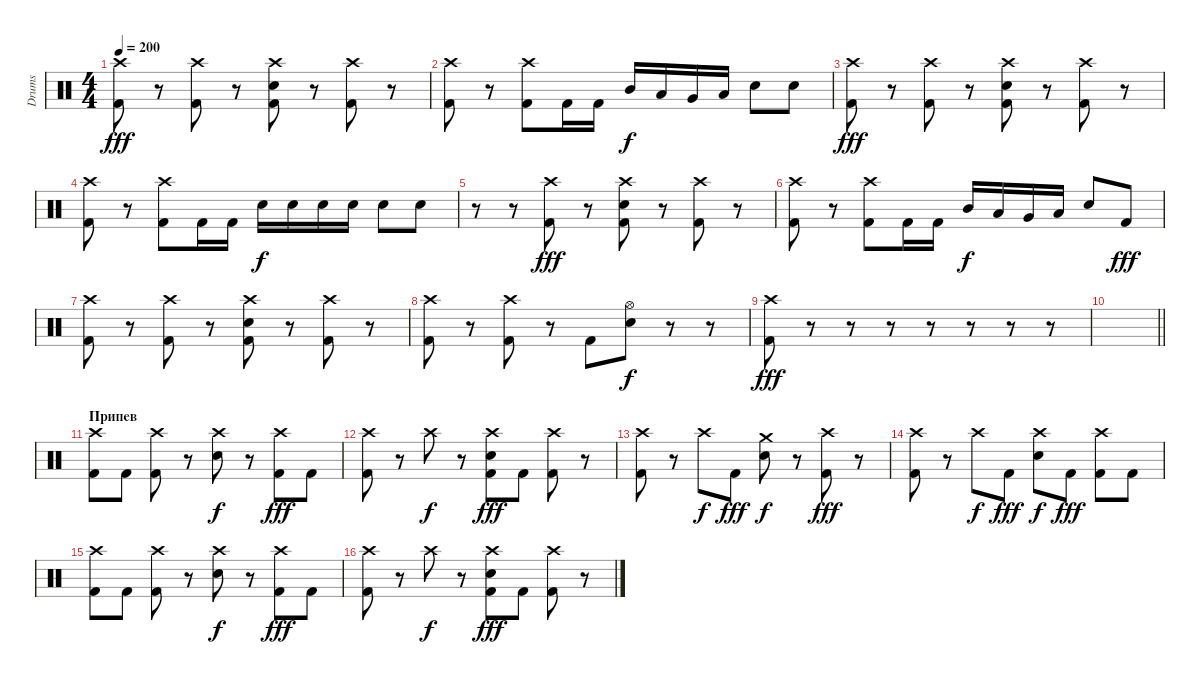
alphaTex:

\track ("Drums" "Drums") {instrument percussion}
\staff {score}
\articulation defaults
\ts (4 4)
\tempo 200
\clef neutral
\ks c
("Crash high (hit)" "Kick (hit) 2").8{dy fff} r.8 ("Crash high (hit)" "Kick (hit) 2").8 r.8 ("Crash high (hit)" "Electric Snare (hit)" "Kick (hit) 2").8 r.8 ("Crash high (hit)" "Kick (hit) 2").8 r.8 |
("Crash high (hit)" "Kick (hit) 2").8 r.8 ("Crash high (hit)" "Kick (hit) 2").8 "Kick (hit) 2".16 "Kick (hit) 2".16 "Mid Tom (hit)".16{dy f} "Low Tom (hit)".16 "Very Low Tom (hit)".16 "Low Floor Tom (hit)".16 "Electric Snare (hit)".8 "Electric Snare (hit)".8 |
("Crash high (hit)" "Kick (hit) 2").8{dy fff} r.8 ("Crash high (hit)" "Kick (hit) 2").8 r.8 ("Crash high (hit)" "Electric Snare (hit)" "Kick (hit) 2").8 r.8 ("Crash high (hit)" "Kick (hit) 2").8 r.8 |
("Crash high (hit)" "Kick (hit) 2").8 r.8 ("Crash high (hit)" "Kick (hit) 2").8 "Kick (hit) 2".16 "Kick (hit) 2".16 "Electric Snare (hit)".16{dy f} "Electric Snare (hit)".16 "Electric Snare (hit)".16 "Electric Snare (hit)".16 "Electric Snare (hit)".8 "Electric Snare (hit)".8 |
r.8 r.8 ("Crash high (hit)" "Kick (hit) 2").8{dy fff} r.8 ("Crash high (hit)" "Electric Snare (hit)" "Kick (hit) 2").8 r.8 ("Crash high (hit)" "Kick (hit) 2").8 r.8 |
("Crash high (hit)" "Kick (hit) 2").8 r.8 ("Crash high (hit)" "Kick (hit) 2").8 "Kick (hit) 2".16 "Kick (hit) 2".16 "Mid Tom (hit)".16{dy f} "Low Tom (hit)".16 "Very Low Tom (hit)".16 "Low Floor Tom (hit)".16 "Electric Snare (hit)".8 "Kick (hit) 2".8{dy fff} |
("Crash high (hit)" "Kick (hit) 2").8 r.8 ("Crash high (hit)" "Kick (hit) 2").8 r.8 ("Crash high (hit)" "Electric Snare (hit)" "Kick (hit) 2").8 r.8 ("Crash high (hit)" "Kick (hit) 2").8 r.8 |
("Crash high (hit)" "Kick (hit) 2").8 r.8 ("Crash high (hit)" "Kick (hit) 2").8 r.8 "Kick (hit) 2".8 ("Hi-Hat (open)" "Electric Snare (hit)").8{dy f} r.8 r.8 |
("Crash high (hit)" "Kick (hit) 2").8{dy fff} r.8 r.8 r.8 r.8 r.8 r.8 r.8 |
\barLineRight lightlight
|
\section ("" "Припев")
("Crash high (hit)" "Kick (hit) 2").8 "Kick (hit) 2".8 ("Crash high (hit)" "Kick (hit) 2").8 r.8 ("Crash high (hit)" "Electric Snare (hit)").8{dy f} r.8 ("Crash high (hit)" "Kick (hit) 2").8{dy fff} "Kick (hit) 2".8 |
("Crash high (hit)" "Kick (hit) 2").8 r.8 "Crash high (hit)".8{dy f} r.8 ("Crash high (hit)" "Electric Snare (hit)" "Kick (hit) 2").8{dy fff} "Kick (hit) 2".8 ("Crash high (hit)" "Kick (hit) 2").8 r.8 |
("Crash high (hit)" "Kick (hit) 2").8 r.8 "Crash high (hit)".8{dy f} "Kick (hit) 2".8{dy fff} ("Crash medium (hit)" "Electric Snare (hit)").8{dy f} r.8 ("Crash high (hit)" "Kick (hit) 2").8{dy fff} r.8 |
("Crash high (hit)" "Kick (hit) 2").8 r.8 "Crash high (hit)".8{dy f} "Kick (hit) 2".8{dy fff} ("Crash high (hit)" "Electric Snare (hit)").8{dy f} "Kick (hit) 2".8{dy fff} ("Crash high (hit)" "Kick (hit) 2").8 "Kick (hit) 2".8 |
("Crash high (hit)" "Kick (hit) 2").8 "Kick (hit) 2".8 ("Crash high (hit)" "Kick (hit) 2").8 r.8 ("Crash high (hit)" "Electric Snare (hit)").8{dy f} r.8 ("Crash high (hit)" "Kick (hit) 2").8{dy fff} "Kick (hit) 2".8 |
("Crash high (hit)" "Kick (hit) 2").8 r.8 "Crash high (hit)".8{dy f} r.8 ("Crash high (hit)" "Electric Snare (hit)" "Kick (hit) 2").8{dy fff} "Kick (hit) 2".8 ("Crash high (hit)" "Kick (hit) 2").8 r.8
